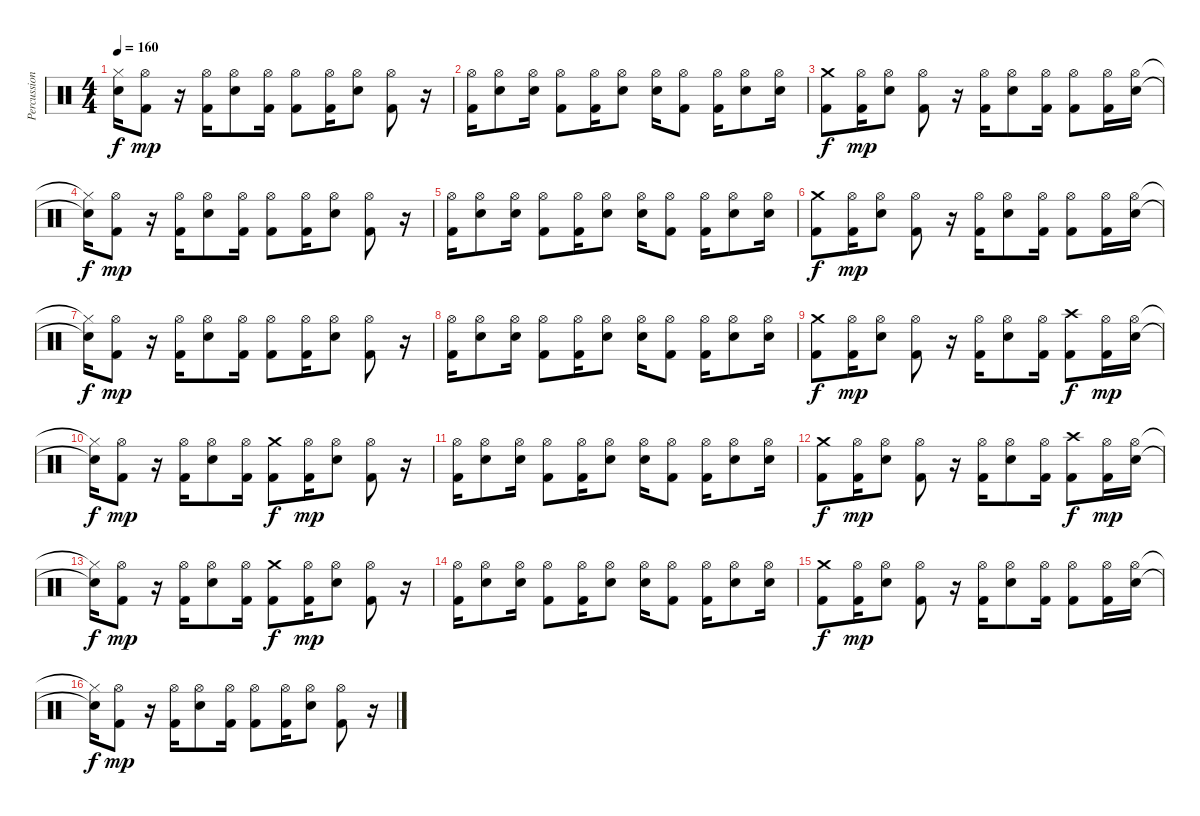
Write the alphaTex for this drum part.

\track ("Percussions" "Percussion") {instrument percussion}
\staff {score}
\articulation defaults
\ts (4 4)
\tempo 160
\clef neutral
\ks c
("Hi-Hat (closed)"{t} "Electric Snare (hit)"{t}).16{dy f} ("Hi-Hat (open)" "Kick (hit) 2").8{dy mp} r.16 ("Hi-Hat (open)" "Kick (hit) 2").16 ("Hi-Hat (open)" "Electric Snare (hit)").8 ("Hi-Hat (open)" "Kick (hit) 2").16 ("Hi-Hat (open)" "Kick (hit) 2").8 ("Hi-Hat (open)" "Kick (hit) 2").16 ("Hi-Hat (open)" "Electric Snare (hit)").8 ("Hi-Hat (open)" "Kick (hit) 2").8 r.16 |
("Hi-Hat (open)" "Kick (hit) 2").16 ("Hi-Hat (open)" "Electric Snare (hit)").8 ("Hi-Hat (open)" "Electric Snare (hit)").16 ("Hi-Hat (open)" "Kick (hit) 2").8 ("Hi-Hat (open)" "Kick (hit) 2").16 ("Hi-Hat (open)" "Electric Snare (hit)").8 ("Hi-Hat (open)" "Electric Snare (hit)").16 ("Hi-Hat (open)" "Kick (hit) 2").8 ("Hi-Hat (open)" "Kick (hit) 2").16 ("Hi-Hat (open)" "Electric Snare (hit)").8 ("Hi-Hat (open)" "Electric Snare (hit)").16 |
("Crash medium (hit)" "Kick (hit) 2").8{dy f} ("Hi-Hat (open)" "Kick (hit) 2").16{dy mp} ("Hi-Hat (open)" "Electric Snare (hit)").8 ("Hi-Hat (open)" "Kick (hit) 2").8 r.16 ("Hi-Hat (open)" "Kick (hit) 2").16 ("Hi-Hat (open)" "Electric Snare (hit)").8 ("Hi-Hat (open)" "Kick (hit) 2").16 ("Hi-Hat (open)" "Kick (hit) 2").8 ("Hi-Hat (open)" "Kick (hit) 2").16 ("Hi-Hat (open)" "Electric Snare (hit)").16 |
("Hi-Hat (closed)"{t} "Electric Snare (hit)"{t}).16{dy f} ("Hi-Hat (open)" "Kick (hit) 2").8{dy mp} r.16 ("Hi-Hat (open)" "Kick (hit) 2").16 ("Hi-Hat (open)" "Electric Snare (hit)").8 ("Hi-Hat (open)" "Kick (hit) 2").16 ("Hi-Hat (open)" "Kick (hit) 2").8 ("Hi-Hat (open)" "Kick (hit) 2").16 ("Hi-Hat (open)" "Electric Snare (hit)").8 ("Hi-Hat (open)" "Kick (hit) 2").8 r.16 |
("Hi-Hat (open)" "Kick (hit) 2").16 ("Hi-Hat (open)" "Electric Snare (hit)").8 ("Hi-Hat (open)" "Electric Snare (hit)").16 ("Hi-Hat (open)" "Kick (hit) 2").8 ("Hi-Hat (open)" "Kick (hit) 2").16 ("Hi-Hat (open)" "Electric Snare (hit)").8 ("Hi-Hat (open)" "Electric Snare (hit)").16 ("Hi-Hat (open)" "Kick (hit) 2").8 ("Hi-Hat (open)" "Kick (hit) 2").16 ("Hi-Hat (open)" "Electric Snare (hit)").8 ("Hi-Hat (open)" "Electric Snare (hit)").16 |
("Crash medium (hit)" "Kick (hit) 2").8{dy f} ("Hi-Hat (open)" "Kick (hit) 2").16{dy mp} ("Hi-Hat (open)" "Electric Snare (hit)").8 ("Hi-Hat (open)" "Kick (hit) 2").8 r.16 ("Hi-Hat (open)" "Kick (hit) 2").16 ("Hi-Hat (open)" "Electric Snare (hit)").8 ("Hi-Hat (open)" "Kick (hit) 2").16 ("Hi-Hat (open)" "Kick (hit) 2").8 ("Hi-Hat (open)" "Kick (hit) 2").16 ("Hi-Hat (open)" "Electric Snare (hit)").16 |
("Hi-Hat (closed)"{t} "Electric Snare (hit)"{t}).16{dy f} ("Hi-Hat (open)" "Kick (hit) 2").8{dy mp} r.16 ("Hi-Hat (open)" "Kick (hit) 2").16 ("Hi-Hat (open)" "Electric Snare (hit)").8 ("Hi-Hat (open)" "Kick (hit) 2").16 ("Hi-Hat (open)" "Kick (hit) 2").8 ("Hi-Hat (open)" "Kick (hit) 2").16 ("Hi-Hat (open)" "Electric Snare (hit)").8 ("Hi-Hat (open)" "Kick (hit) 2").8 r.16 |
("Hi-Hat (open)" "Kick (hit) 2").16 ("Hi-Hat (open)" "Electric Snare (hit)").8 ("Hi-Hat (open)" "Electric Snare (hit)").16 ("Hi-Hat (open)" "Kick (hit) 2").8 ("Hi-Hat (open)" "Kick (hit) 2").16 ("Hi-Hat (open)" "Electric Snare (hit)").8 ("Hi-Hat (open)" "Electric Snare (hit)").16 ("Hi-Hat (open)" "Kick (hit) 2").8 ("Hi-Hat (open)" "Kick (hit) 2").16 ("Hi-Hat (open)" "Electric Snare (hit)").8 ("Hi-Hat (open)" "Electric Snare (hit)").16 |
("Crash medium (hit)" "Kick (hit) 2").8{dy f} ("Hi-Hat (open)" "Kick (hit) 2").16{dy mp} ("Hi-Hat (open)" "Electric Snare (hit)").8 ("Hi-Hat (open)" "Kick (hit) 2").8 r.16 ("Hi-Hat (open)" "Kick (hit) 2").16 ("Hi-Hat (open)" "Electric Snare (hit)").8 ("Hi-Hat (open)" "Kick (hit) 2").16 ("Crash high (hit)" "Kick (hit) 2").8{dy f} ("Hi-Hat (open)" "Kick (hit) 2").16{dy mp} ("Hi-Hat (open)" "Electric Snare (hit)").16 |
("Hi-Hat (closed)"{t} "Electric Snare (hit)"{t}).16{dy f} ("Hi-Hat (open)" "Kick (hit) 2").8{dy mp} r.16 ("Hi-Hat (open)" "Kick (hit) 2").16 ("Hi-Hat (open)" "Electric Snare (hit)").8 ("Hi-Hat (open)" "Kick (hit) 2").16 ("Crash medium (hit)" "Kick (hit) 2").8{dy f} ("Hi-Hat (open)" "Kick (hit) 2").16{dy mp} ("Hi-Hat (open)" "Electric Snare (hit)").8 ("Hi-Hat (open)" "Kick (hit) 2").8 r.16 |
("Hi-Hat (open)" "Kick (hit) 2").16 ("Hi-Hat (open)" "Electric Snare (hit)").8 ("Hi-Hat (open)" "Electric Snare (hit)").16 ("Hi-Hat (open)" "Kick (hit) 2").8 ("Hi-Hat (open)" "Kick (hit) 2").16 ("Hi-Hat (open)" "Electric Snare (hit)").8 ("Hi-Hat (open)" "Electric Snare (hit)").16 ("Hi-Hat (open)" "Kick (hit) 2").8 ("Hi-Hat (open)" "Kick (hit) 2").16 ("Hi-Hat (open)" "Electric Snare (hit)").8 ("Hi-Hat (open)" "Electric Snare (hit)").16 |
("Crash medium (hit)" "Kick (hit) 2").8{dy f} ("Hi-Hat (open)" "Kick (hit) 2").16{dy mp} ("Hi-Hat (open)" "Electric Snare (hit)").8 ("Hi-Hat (open)" "Kick (hit) 2").8 r.16 ("Hi-Hat (open)" "Kick (hit) 2").16 ("Hi-Hat (open)" "Electric Snare (hit)").8 ("Hi-Hat (open)" "Kick (hit) 2").16 ("Crash high (hit)" "Kick (hit) 2").8{dy f} ("Hi-Hat (open)" "Kick (hit) 2").16{dy mp} ("Hi-Hat (open)" "Electric Snare (hit)").16 |
("Hi-Hat (closed)"{t} "Electric Snare (hit)"{t}).16{dy f} ("Hi-Hat (open)" "Kick (hit) 2").8{dy mp} r.16 ("Hi-Hat (open)" "Kick (hit) 2").16 ("Hi-Hat (open)" "Electric Snare (hit)").8 ("Hi-Hat (open)" "Kick (hit) 2").16 ("Crash medium (hit)" "Kick (hit) 2").8{dy f} ("Hi-Hat (open)" "Kick (hit) 2").16{dy mp} ("Hi-Hat (open)" "Electric Snare (hit)").8 ("Hi-Hat (open)" "Kick (hit) 2").8 r.16 |
("Hi-Hat (open)" "Kick (hit) 2").16 ("Hi-Hat (open)" "Electric Snare (hit)").8 ("Hi-Hat (open)" "Electric Snare (hit)").16 ("Hi-Hat (open)" "Kick (hit) 2").8 ("Hi-Hat (open)" "Kick (hit) 2").16 ("Hi-Hat (open)" "Electric Snare (hit)").8 ("Hi-Hat (open)" "Electric Snare (hit)").16 ("Hi-Hat (open)" "Kick (hit) 2").8 ("Hi-Hat (open)" "Kick (hit) 2").16 ("Hi-Hat (open)" "Electric Snare (hit)").8 ("Hi-Hat (open)" "Electric Snare (hit)").16 |
("Crash medium (hit)" "Kick (hit) 2").8{dy f} ("Hi-Hat (open)" "Kick (hit) 2").16{dy mp} ("Hi-Hat (open)" "Electric Snare (hit)").8 ("Hi-Hat (open)" "Kick (hit) 2").8 r.16 ("Hi-Hat (open)" "Kick (hit) 2").16 ("Hi-Hat (open)" "Electric Snare (hit)").8 ("Hi-Hat (open)" "Kick (hit) 2").16 ("Hi-Hat (open)" "Kick (hit) 2").8 ("Hi-Hat (open)" "Kick (hit) 2").16 ("Hi-Hat (open)" "Electric Snare (hit)").16 |
("Hi-Hat (closed)"{t} "Electric Snare (hit)"{t}).16{dy f} ("Hi-Hat (open)" "Kick (hit) 2").8{dy mp} r.16 ("Hi-Hat (open)" "Kick (hit) 2").16 ("Hi-Hat (open)" "Electric Snare (hit)").8 ("Hi-Hat (open)" "Kick (hit) 2").16 ("Hi-Hat (open)" "Kick (hit) 2").8 ("Hi-Hat (open)" "Kick (hit) 2").16 ("Hi-Hat (open)" "Electric Snare (hit)").8 ("Hi-Hat (open)" "Kick (hit) 2").8 r.16
